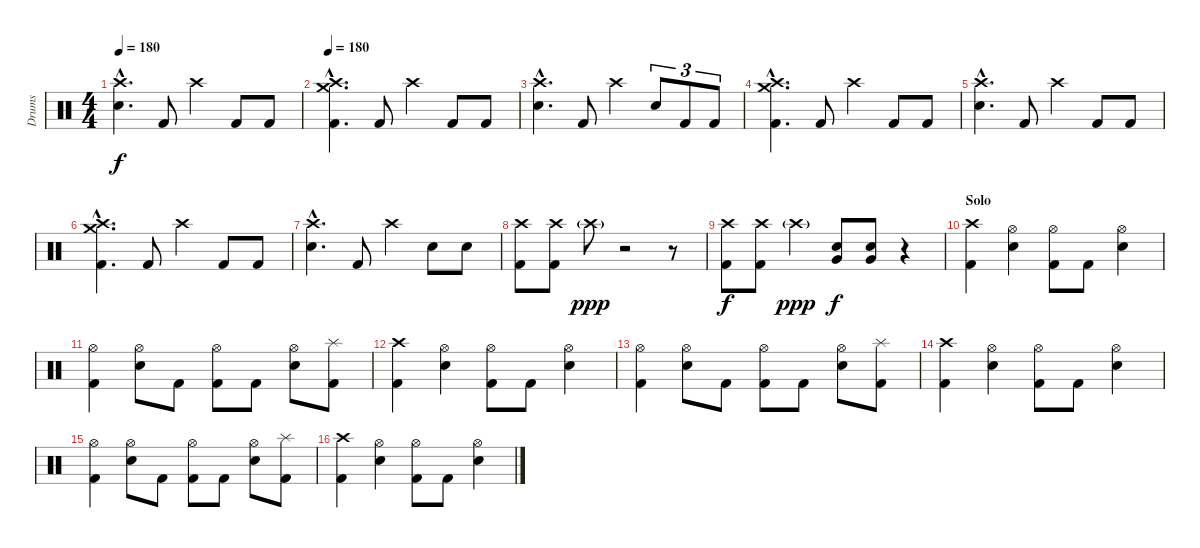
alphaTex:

\track ("Drums" "Drums") {instrument percussion}
\staff {score}
\articulation defaults
\ts (4 4)
\tempo 180
\clef neutral
\ks c
("Crash high (hit)"{hac} "Electric Snare (hit)"{hac}).4{d dy f} "Kick (hit) 2".8 "Crash high (hit)".4 "Kick (hit) 2".8 "Kick (hit) 2".8 |
\tempo 180
("Crash high (hit)"{hac} "Crash medium (hit)"{hac} "Kick (hit) 2"{hac}).4{d} "Kick (hit) 2".8 "Crash high (hit)".4 "Kick (hit) 2".8 "Kick (hit) 2".8 |
("Crash high (hit)"{hac} "Electric Snare (hit)"{hac}).4{d} "Kick (hit) 2".8 "Crash high (hit)".4 "Electric Snare (hit)".8{tu (3 2)} "Kick (hit) 2".8{tu (3 2)} "Kick (hit) 2".8{tu (3 2)} |
("Crash high (hit)"{hac} "Crash medium (hit)"{hac} "Kick (hit) 2"{hac}).4{d} "Kick (hit) 2".8 "Crash high (hit)".4 "Kick (hit) 2".8 "Kick (hit) 2".8 |
("Crash high (hit)"{hac} "Electric Snare (hit)"{hac}).4{d} "Kick (hit) 2".8 "Crash high (hit)".4 "Kick (hit) 2".8 "Kick (hit) 2".8 |
("Crash high (hit)"{hac} "Crash medium (hit)"{hac} "Kick (hit) 2"{hac}).4{d} "Kick (hit) 2".8 "Crash high (hit)".4 "Kick (hit) 2".8 "Kick (hit) 2".8 |
("Crash high (hit)"{hac} "Electric Snare (hit)"{hac}).4{d} "Kick (hit) 2".8 "Crash high (hit)".4 "Electric Snare (hit)".8 "Electric Snare (hit)".8 |
("Crash high (hit)" "Kick (hit) 2").8 ("Crash high (hit)" "Kick (hit) 2").8 "Crash high (hit)"{g}.8{dy ppp} r.2 r.8 |
("Crash high (hit)" "Kick (hit) 2").8{dy f} ("Crash high (hit)" "Kick (hit) 2").8 "Crash high (hit)"{g}.4{dy ppp} ("Very Low Tom (hit)" "Electric Snare (hit)").8{dy f} ("Very Low Tom (hit)" "Electric Snare (hit)").8 r.4 |
\section ("" "Solo")
("Crash high (hit)" "Kick (hit) 2").4 ("Hi-Hat (open)" "Electric Snare (hit)").4 ("Hi-Hat (open)" "Kick (hit) 2").8 "Kick (hit) 2".8 ("Hi-Hat (open)" "Electric Snare (hit)").4 |
("Hi-Hat (open)" "Kick (hit) 2").4 ("Hi-Hat (open)" "Electric Snare (hit)").8 "Kick (hit) 2".8 ("Hi-Hat (open)" "Kick (hit) 2").8 "Kick (hit) 2".8 ("Hi-Hat (open)" "Electric Snare (hit)").8 ("Splash (hit)" "Kick (hit) 2").8 |
("Crash high (hit)" "Kick (hit) 2").4 ("Hi-Hat (open)" "Electric Snare (hit)").4 ("Hi-Hat (open)" "Kick (hit) 2").8 "Kick (hit) 2".8 ("Hi-Hat (open)" "Electric Snare (hit)").4 |
("Hi-Hat (open)" "Kick (hit) 2").4 ("Hi-Hat (open)" "Electric Snare (hit)").8 "Kick (hit) 2".8 ("Hi-Hat (open)" "Kick (hit) 2").8 "Kick (hit) 2".8 ("Hi-Hat (open)" "Electric Snare (hit)").8 ("Splash (hit)" "Kick (hit) 2").8 |
("Crash high (hit)" "Kick (hit) 2").4 ("Hi-Hat (open)" "Electric Snare (hit)").4 ("Hi-Hat (open)" "Kick (hit) 2").8 "Kick (hit) 2".8 ("Hi-Hat (open)" "Electric Snare (hit)").4 |
("Hi-Hat (open)" "Kick (hit) 2").4 ("Hi-Hat (open)" "Electric Snare (hit)").8 "Kick (hit) 2".8 ("Hi-Hat (open)" "Kick (hit) 2").8 "Kick (hit) 2".8 ("Hi-Hat (open)" "Electric Snare (hit)").8 ("Splash (hit)" "Kick (hit) 2").8 |
("Crash high (hit)" "Kick (hit) 2").4 ("Hi-Hat (open)" "Electric Snare (hit)").4 ("Hi-Hat (open)" "Kick (hit) 2").8 "Kick (hit) 2".8 ("Hi-Hat (open)" "Electric Snare (hit)").4
